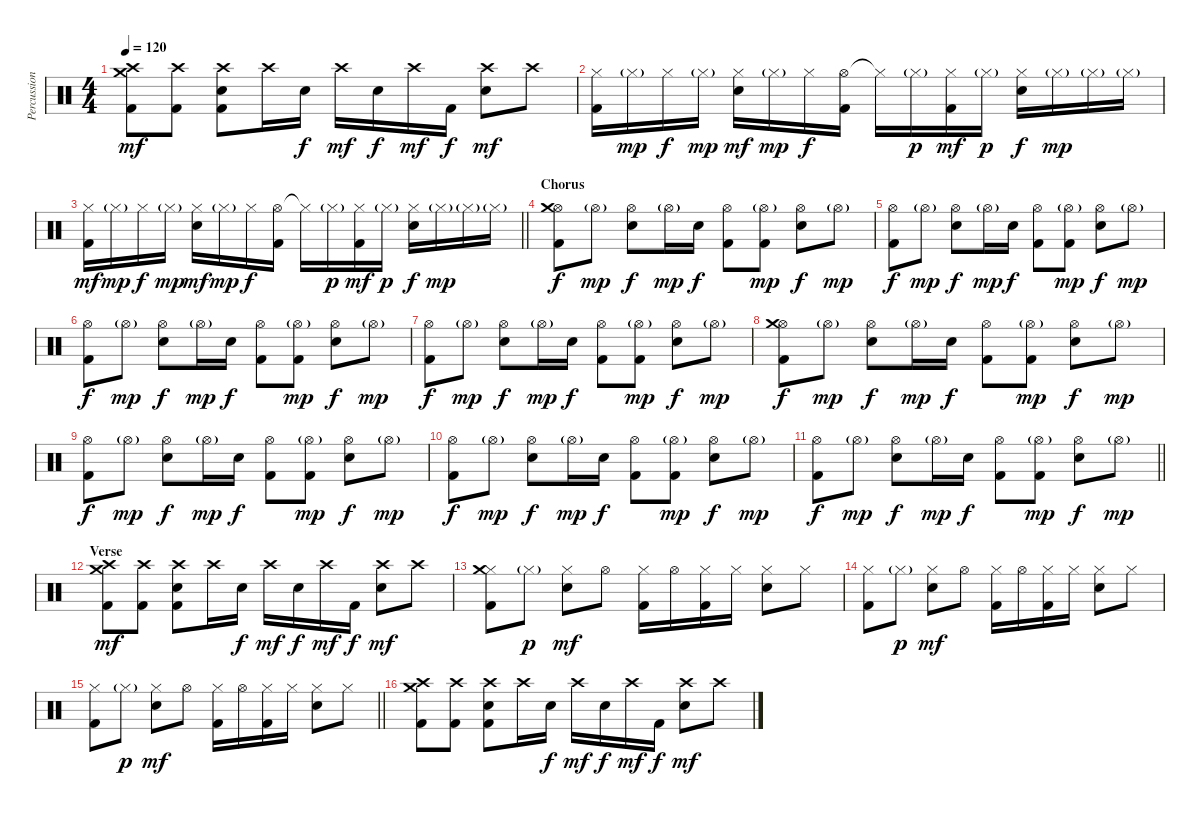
\track ("Percussion" "Percussion") {instrument percussion}
\staff {score}
\articulation defaults
\ts (4 4)
\tempo 120
\clef neutral
\ks c
("Crash high (hit)" "Kick (hit) 2" "Crash medium (hit)").8{dy mf} ("Crash high (hit)" "Kick (hit) 2").8 ("Crash high (hit)" "Kick (hit) 2" "Electric Snare (hit)").8 "Crash high (hit)".16 "Electric Snare (hit)".16{dy f} "Crash high (hit)".16{dy mf} "Electric Snare (hit)".16{dy f} "Crash high (hit)".16{dy mf} "Kick (hit) 2".16{dy f} ("Crash high (hit)" "Electric Snare (hit)").8{dy mf} "Crash high (hit)".8 |
("Hi-Hat (closed)" "Kick (hit) 2").16 "Hi-Hat (closed)"{g}.16{dy mp} "Hi-Hat (closed)".16{dy f} "Hi-Hat (closed)"{g}.16{dy mp} ("Hi-Hat (closed)" "Electric Snare (hit)").16{dy mf} "Hi-Hat (closed)"{g}.16{dy mp} "Hi-Hat (closed)".16{dy f} ("Hi-Hat (open)" "Kick (hit) 2").16 "Hi-Hat (closed)"{t}.16 "Hi-Hat (closed)"{g}.16{dy p} ("Hi-Hat (closed)" "Kick (hit) 2").16{dy mf} "Hi-Hat (closed)"{g}.16{dy p} ("Hi-Hat (closed)" "Electric Snare (hit)").16{dy f} "Hi-Hat (closed)"{g}.16{dy mp} "Hi-Hat (closed)"{g}.16 "Hi-Hat (closed)"{g}.16 |
\barLineRight lightlight
("Hi-Hat (closed)" "Kick (hit) 2").16{dy mf} "Hi-Hat (closed)"{g}.16{dy mp} "Hi-Hat (closed)".16{dy f} "Hi-Hat (closed)"{g}.16{dy mp} ("Hi-Hat (closed)" "Electric Snare (hit)").16{dy mf} "Hi-Hat (closed)"{g}.16{dy mp} "Hi-Hat (closed)".16{dy f} ("Hi-Hat (open)" "Kick (hit) 2").16 "Hi-Hat (closed)"{t}.16 "Hi-Hat (closed)"{g}.16{dy p} ("Hi-Hat (closed)" "Kick (hit) 2").16{dy mf} "Hi-Hat (closed)"{g}.16{dy p} ("Hi-Hat (closed)" "Electric Snare (hit)").16{dy f} "Hi-Hat (closed)"{g}.16{dy mp} "Hi-Hat (closed)"{g}.16 "Hi-Hat (closed)"{g}.16 |
\section ("" "Chorus")
("Hi-Hat (open)" "Kick (hit) 2" "Crash medium (hit)").8{dy f} "Hi-Hat (open)"{g}.8{dy mp} ("Hi-Hat (open)" "Electric Snare (hit)").8{dy f} "Hi-Hat (open)"{g}.16{dy mp} "Electric Snare (hit)".16{dy f} ("Hi-Hat (open)" "Kick (hit) 2").8 ("Hi-Hat (open)"{g} "Kick (hit) 2").8{dy mp} ("Hi-Hat (open)" "Electric Snare (hit)").8{dy f} "Hi-Hat (open)"{g}.8{dy mp} |
("Hi-Hat (open)" "Kick (hit) 2").8{dy f} "Hi-Hat (open)"{g}.8{dy mp} ("Hi-Hat (open)" "Electric Snare (hit)").8{dy f} "Hi-Hat (open)"{g}.16{dy mp} "Electric Snare (hit)".16{dy f} ("Hi-Hat (open)" "Kick (hit) 2").8 ("Hi-Hat (open)"{g} "Kick (hit) 2").8{dy mp} ("Hi-Hat (open)" "Electric Snare (hit)").8{dy f} "Hi-Hat (open)"{g}.8{dy mp} |
("Hi-Hat (open)" "Kick (hit) 2").8{dy f} "Hi-Hat (open)"{g}.8{dy mp} ("Hi-Hat (open)" "Electric Snare (hit)").8{dy f} "Hi-Hat (open)"{g}.16{dy mp} "Electric Snare (hit)".16{dy f} ("Hi-Hat (open)" "Kick (hit) 2").8 ("Hi-Hat (open)"{g} "Kick (hit) 2").8{dy mp} ("Hi-Hat (open)" "Electric Snare (hit)").8{dy f} "Hi-Hat (open)"{g}.8{dy mp} |
("Hi-Hat (open)" "Kick (hit) 2").8{dy f} "Hi-Hat (open)"{g}.8{dy mp} ("Hi-Hat (open)" "Electric Snare (hit)").8{dy f} "Hi-Hat (open)"{g}.16{dy mp} "Electric Snare (hit)".16{dy f} ("Hi-Hat (open)" "Kick (hit) 2").8 ("Hi-Hat (open)"{g} "Kick (hit) 2").8{dy mp} ("Hi-Hat (open)" "Electric Snare (hit)").8{dy f} "Hi-Hat (open)"{g}.8{dy mp} |
("Hi-Hat (open)" "Kick (hit) 2" "Crash medium (hit)").8{dy f} "Hi-Hat (open)"{g}.8{dy mp} ("Hi-Hat (open)" "Electric Snare (hit)").8{dy f} "Hi-Hat (open)"{g}.16{dy mp} "Electric Snare (hit)".16{dy f} ("Hi-Hat (open)" "Kick (hit) 2").8 ("Hi-Hat (open)"{g} "Kick (hit) 2").8{dy mp} ("Hi-Hat (open)" "Electric Snare (hit)").8{dy f} "Hi-Hat (open)"{g}.8{dy mp} |
("Hi-Hat (open)" "Kick (hit) 2").8{dy f} "Hi-Hat (open)"{g}.8{dy mp} ("Hi-Hat (open)" "Electric Snare (hit)").8{dy f} "Hi-Hat (open)"{g}.16{dy mp} "Electric Snare (hit)".16{dy f} ("Hi-Hat (open)" "Kick (hit) 2").8 ("Hi-Hat (open)"{g} "Kick (hit) 2").8{dy mp} ("Hi-Hat (open)" "Electric Snare (hit)").8{dy f} "Hi-Hat (open)"{g}.8{dy mp} |
("Hi-Hat (open)" "Kick (hit) 2").8{dy f} "Hi-Hat (open)"{g}.8{dy mp} ("Hi-Hat (open)" "Electric Snare (hit)").8{dy f} "Hi-Hat (open)"{g}.16{dy mp} "Electric Snare (hit)".16{dy f} ("Hi-Hat (open)" "Kick (hit) 2").8 ("Hi-Hat (open)"{g} "Kick (hit) 2").8{dy mp} ("Hi-Hat (open)" "Electric Snare (hit)").8{dy f} "Hi-Hat (open)"{g}.8{dy mp} |
\barLineRight lightlight
("Hi-Hat (open)" "Kick (hit) 2").8{dy f} "Hi-Hat (open)"{g}.8{dy mp} ("Hi-Hat (open)" "Electric Snare (hit)").8{dy f} "Hi-Hat (open)"{g}.16{dy mp} "Electric Snare (hit)".16{dy f} ("Hi-Hat (open)" "Kick (hit) 2").8 ("Hi-Hat (open)"{g} "Kick (hit) 2").8{dy mp} ("Hi-Hat (open)" "Electric Snare (hit)").8{dy f} "Hi-Hat (open)"{g}.8{dy mp} |
\section ("" "Verse")
("Crash high (hit)" "Kick (hit) 2" "Crash medium (hit)").8{dy mf} ("Crash high (hit)" "Kick (hit) 2").8 ("Crash high (hit)" "Kick (hit) 2" "Electric Snare (hit)").8 "Crash high (hit)".16 "Electric Snare (hit)".16{dy f} "Crash high (hit)".16{dy mf} "Electric Snare (hit)".16{dy f} "Crash high (hit)".16{dy mf} "Kick (hit) 2".16{dy f} ("Crash high (hit)" "Electric Snare (hit)").8{dy mf} "Crash high (hit)".8 |
("Hi-Hat (closed)" "Kick (hit) 2" "Crash medium (hit)").8 "Hi-Hat (closed)"{g}.8{dy p} ("Hi-Hat (closed)" "Electric Snare (hit)").8{dy mf} "Hi-Hat (open)".8 ("Hi-Hat (closed)" "Kick (hit) 2").16 "Hi-Hat (open)".16 ("Hi-Hat (closed)" "Kick (hit) 2").16 "Hi-Hat (closed)".16 ("Hi-Hat (closed)" "Electric Snare (hit)").8 "Hi-Hat (closed)".8 |
("Hi-Hat (closed)" "Kick (hit) 2").8 "Hi-Hat (closed)"{g}.8{dy p} ("Hi-Hat (closed)" "Electric Snare (hit)").8{dy mf} "Hi-Hat (open)".8 ("Hi-Hat (closed)" "Kick (hit) 2").16 "Hi-Hat (open)".16 ("Hi-Hat (closed)" "Kick (hit) 2").16 "Hi-Hat (closed)".16 ("Hi-Hat (closed)" "Electric Snare (hit)").8 "Hi-Hat (closed)".8 |
\barLineRight lightlight
("Hi-Hat (closed)" "Kick (hit) 2").8 "Hi-Hat (closed)"{g}.8{dy p} ("Hi-Hat (closed)" "Electric Snare (hit)").8{dy mf} "Hi-Hat (open)".8 ("Hi-Hat (closed)" "Kick (hit) 2").16 "Hi-Hat (open)".16 ("Hi-Hat (closed)" "Kick (hit) 2").16 "Hi-Hat (closed)".16 ("Hi-Hat (closed)" "Electric Snare (hit)").8 "Hi-Hat (closed)".8 |
("Crash high (hit)" "Kick (hit) 2" "Crash medium (hit)").8 ("Crash high (hit)" "Kick (hit) 2").8 ("Crash high (hit)" "Kick (hit) 2" "Electric Snare (hit)").8 "Crash high (hit)".16 "Electric Snare (hit)".16{dy f} "Crash high (hit)".16{dy mf} "Electric Snare (hit)".16{dy f} "Crash high (hit)".16{dy mf} "Kick (hit) 2".16{dy f} ("Crash high (hit)" "Electric Snare (hit)").8{dy mf} "Crash high (hit)".8
